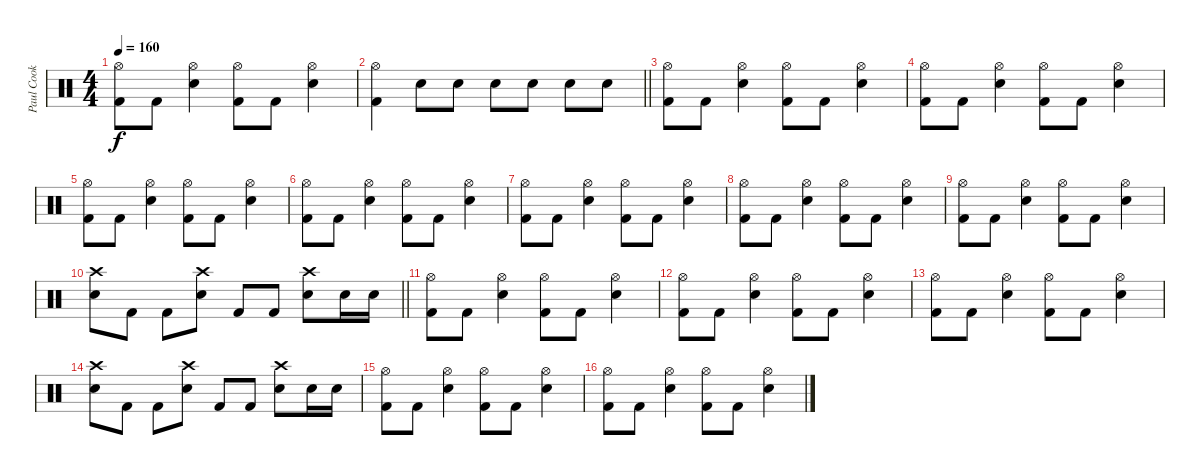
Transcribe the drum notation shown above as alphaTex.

\track ("Paul Cook" "Paul Cook") {instrument percussion}
\staff {score}
\articulation defaults
\ts (4 4)
\tempo 160
\clef neutral
\ks c
("Hi-Hat (open)" "Kick (hit) 2").8{dy f} "Kick (hit) 2".8 ("Hi-Hat (open)" "Electric Snare (hit)").4 ("Hi-Hat (open)" "Kick (hit) 2").8 "Kick (hit) 2".8 ("Hi-Hat (open)" "Electric Snare (hit)").4 |
\barLineRight lightlight
("Hi-Hat (open)" "Kick (hit) 2").4 "Electric Snare (hit)".8 "Electric Snare (hit)".8 "Electric Snare (hit)".8 "Electric Snare (hit)".8 "Electric Snare (hit)".8 "Electric Snare (hit)".8 |
("Hi-Hat (open)" "Kick (hit) 2").8 "Kick (hit) 2".8 ("Hi-Hat (open)" "Electric Snare (hit)").4 ("Hi-Hat (open)" "Kick (hit) 2").8 "Kick (hit) 2".8 ("Hi-Hat (open)" "Electric Snare (hit)").4 |
("Hi-Hat (open)" "Kick (hit) 2").8 "Kick (hit) 2".8 ("Hi-Hat (open)" "Electric Snare (hit)").4 ("Hi-Hat (open)" "Kick (hit) 2").8 "Kick (hit) 2".8 ("Hi-Hat (open)" "Electric Snare (hit)").4 |
("Hi-Hat (open)" "Kick (hit) 2").8 "Kick (hit) 2".8 ("Hi-Hat (open)" "Electric Snare (hit)").4 ("Hi-Hat (open)" "Kick (hit) 2").8 "Kick (hit) 2".8 ("Hi-Hat (open)" "Electric Snare (hit)").4 |
("Hi-Hat (open)" "Kick (hit) 2").8 "Kick (hit) 2".8 ("Hi-Hat (open)" "Electric Snare (hit)").4 ("Hi-Hat (open)" "Kick (hit) 2").8 "Kick (hit) 2".8 ("Hi-Hat (open)" "Electric Snare (hit)").4 |
("Hi-Hat (open)" "Kick (hit) 2").8 "Kick (hit) 2".8 ("Hi-Hat (open)" "Electric Snare (hit)").4 ("Hi-Hat (open)" "Kick (hit) 2").8 "Kick (hit) 2".8 ("Hi-Hat (open)" "Electric Snare (hit)").4 |
("Hi-Hat (open)" "Kick (hit) 2").8 "Kick (hit) 2".8 ("Hi-Hat (open)" "Electric Snare (hit)").4 ("Hi-Hat (open)" "Kick (hit) 2").8 "Kick (hit) 2".8 ("Hi-Hat (open)" "Electric Snare (hit)").4 |
("Hi-Hat (open)" "Kick (hit) 2").8 "Kick (hit) 2".8 ("Hi-Hat (open)" "Electric Snare (hit)").4 ("Hi-Hat (open)" "Kick (hit) 2").8 "Kick (hit) 2".8 ("Hi-Hat (open)" "Electric Snare (hit)").4 |
\barLineRight lightlight
("Crash high (hit)" "Electric Snare (hit)").8 "Kick (hit) 2".8 "Kick (hit) 2".8 ("Crash high (hit)" "Electric Snare (hit)").8 "Kick (hit) 2".8 "Kick (hit) 2".8 ("Crash high (hit)" "Electric Snare (hit)").8 "Electric Snare (hit)".16 "Electric Snare (hit)".16 |
("Hi-Hat (open)" "Kick (hit) 2").8 "Kick (hit) 2".8 ("Hi-Hat (open)" "Electric Snare (hit)").4 ("Hi-Hat (open)" "Kick (hit) 2").8 "Kick (hit) 2".8 ("Hi-Hat (open)" "Electric Snare (hit)").4 |
("Hi-Hat (open)" "Kick (hit) 2").8 "Kick (hit) 2".8 ("Hi-Hat (open)" "Electric Snare (hit)").4 ("Hi-Hat (open)" "Kick (hit) 2").8 "Kick (hit) 2".8 ("Hi-Hat (open)" "Electric Snare (hit)").4 |
("Hi-Hat (open)" "Kick (hit) 2").8 "Kick (hit) 2".8 ("Hi-Hat (open)" "Electric Snare (hit)").4 ("Hi-Hat (open)" "Kick (hit) 2").8 "Kick (hit) 2".8 ("Hi-Hat (open)" "Electric Snare (hit)").4 |
("Crash high (hit)" "Electric Snare (hit)").8 "Kick (hit) 2".8 "Kick (hit) 2".8 ("Crash high (hit)" "Electric Snare (hit)").8 "Kick (hit) 2".8 "Kick (hit) 2".8 ("Crash high (hit)" "Electric Snare (hit)").8 "Electric Snare (hit)".16 "Electric Snare (hit)".16 |
("Hi-Hat (open)" "Kick (hit) 2").8 "Kick (hit) 2".8 ("Hi-Hat (open)" "Electric Snare (hit)").4 ("Hi-Hat (open)" "Kick (hit) 2").8 "Kick (hit) 2".8 ("Hi-Hat (open)" "Electric Snare (hit)").4 |
("Hi-Hat (open)" "Kick (hit) 2").8 "Kick (hit) 2".8 ("Hi-Hat (open)" "Electric Snare (hit)").4 ("Hi-Hat (open)" "Kick (hit) 2").8 "Kick (hit) 2".8 ("Hi-Hat (open)" "Electric Snare (hit)").4
